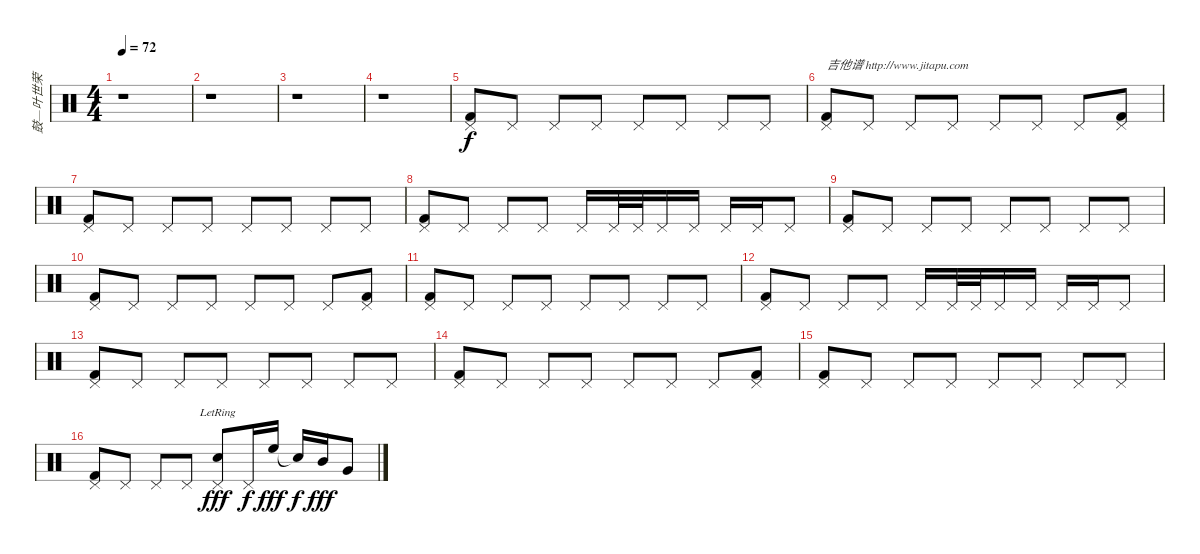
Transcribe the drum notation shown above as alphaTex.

\track ("鼓—叶世荣" "鼓—叶世荣") {instrument percussion}
\staff {score}
\articulation defaults
\ts (4 4)
\tempo 72
\clef neutral
\ks c
r.1{dy f} |
r.1 |
r.1 |
r.1 |
("Pedal Hi-Hat (hit)" "Kick (hit) 2").8 "Pedal Hi-Hat (hit)".8 "Pedal Hi-Hat (hit)".8 "Pedal Hi-Hat (hit)".8 "Pedal Hi-Hat (hit)".8 "Pedal Hi-Hat (hit)".8 "Pedal Hi-Hat (hit)".8 "Pedal Hi-Hat (hit)".8 |
("Pedal Hi-Hat (hit)" "Kick (hit) 2").8{txt "吉他谱 http://www.jitapu.com"} "Pedal Hi-Hat (hit)".8 "Pedal Hi-Hat (hit)".8 "Pedal Hi-Hat (hit)".8 "Pedal Hi-Hat (hit)".8 "Pedal Hi-Hat (hit)".8 "Pedal Hi-Hat (hit)".8 ("Pedal Hi-Hat (hit)" "Kick (hit) 2").8 |
("Pedal Hi-Hat (hit)" "Kick (hit) 2").8 "Pedal Hi-Hat (hit)".8 "Pedal Hi-Hat (hit)".8 "Pedal Hi-Hat (hit)".8 "Pedal Hi-Hat (hit)".8 "Pedal Hi-Hat (hit)".8 "Pedal Hi-Hat (hit)".8 "Pedal Hi-Hat (hit)".8 |
("Pedal Hi-Hat (hit)" "Kick (hit) 2").8 "Pedal Hi-Hat (hit)".8 "Pedal Hi-Hat (hit)".8 "Pedal Hi-Hat (hit)".8 "Pedal Hi-Hat (hit)".16 "Pedal Hi-Hat (hit)".32 "Pedal Hi-Hat (hit)".32 "Pedal Hi-Hat (hit)".16 "Pedal Hi-Hat (hit)".16 "Pedal Hi-Hat (hit)".16 "Pedal Hi-Hat (hit)".16 "Pedal Hi-Hat (hit)".8 |
("Pedal Hi-Hat (hit)" "Kick (hit) 2").8 "Pedal Hi-Hat (hit)".8 "Pedal Hi-Hat (hit)".8 "Pedal Hi-Hat (hit)".8 "Pedal Hi-Hat (hit)".8 "Pedal Hi-Hat (hit)".8 "Pedal Hi-Hat (hit)".8 "Pedal Hi-Hat (hit)".8 |
("Pedal Hi-Hat (hit)" "Kick (hit) 2").8 "Pedal Hi-Hat (hit)".8 "Pedal Hi-Hat (hit)".8 "Pedal Hi-Hat (hit)".8 "Pedal Hi-Hat (hit)".8 "Pedal Hi-Hat (hit)".8 "Pedal Hi-Hat (hit)".8 ("Pedal Hi-Hat (hit)" "Kick (hit) 2").8 |
("Pedal Hi-Hat (hit)" "Kick (hit) 2").8 "Pedal Hi-Hat (hit)".8 "Pedal Hi-Hat (hit)".8 "Pedal Hi-Hat (hit)".8 "Pedal Hi-Hat (hit)".8 "Pedal Hi-Hat (hit)".8 "Pedal Hi-Hat (hit)".8 "Pedal Hi-Hat (hit)".8 |
("Pedal Hi-Hat (hit)" "Kick (hit) 2").8 "Pedal Hi-Hat (hit)".8 "Pedal Hi-Hat (hit)".8 "Pedal Hi-Hat (hit)".8 "Pedal Hi-Hat (hit)".16 "Pedal Hi-Hat (hit)".32 "Pedal Hi-Hat (hit)".32 "Pedal Hi-Hat (hit)".16 "Pedal Hi-Hat (hit)".16 "Pedal Hi-Hat (hit)".16 "Pedal Hi-Hat (hit)".16 "Pedal Hi-Hat (hit)".8 |
("Pedal Hi-Hat (hit)" "Kick (hit) 2").8 "Pedal Hi-Hat (hit)".8 "Pedal Hi-Hat (hit)".8 "Pedal Hi-Hat (hit)".8 "Pedal Hi-Hat (hit)".8 "Pedal Hi-Hat (hit)".8 "Pedal Hi-Hat (hit)".8 "Pedal Hi-Hat (hit)".8 |
("Pedal Hi-Hat (hit)" "Kick (hit) 2").8 "Pedal Hi-Hat (hit)".8 "Pedal Hi-Hat (hit)".8 "Pedal Hi-Hat (hit)".8 "Pedal Hi-Hat (hit)".8 "Pedal Hi-Hat (hit)".8 "Pedal Hi-Hat (hit)".8 ("Pedal Hi-Hat (hit)" "Kick (hit) 2").8 |
("Pedal Hi-Hat (hit)" "Kick (hit) 2").8 "Pedal Hi-Hat (hit)".8 "Pedal Hi-Hat (hit)".8 "Pedal Hi-Hat (hit)".8 "Pedal Hi-Hat (hit)".8 "Pedal Hi-Hat (hit)".8 "Pedal Hi-Hat (hit)".8 "Pedal Hi-Hat (hit)".8 |
("Pedal Hi-Hat (hit)" "Kick (hit) 2").8 "Pedal Hi-Hat (hit)".8 "Pedal Hi-Hat (hit)".8 "Pedal Hi-Hat (hit)".8 ("Pedal Hi-Hat (hit)" "Electric Snare (hit)"{lr}).8{dy fff} "Pedal Hi-Hat (hit)".16{dy f} "High Floor Tom (hit)".16{dy fff} "Snare (hit)"{t}.16{dy f} "Mid Tom (hit)".16{dy fff} "Very Low Tom (hit)".8
